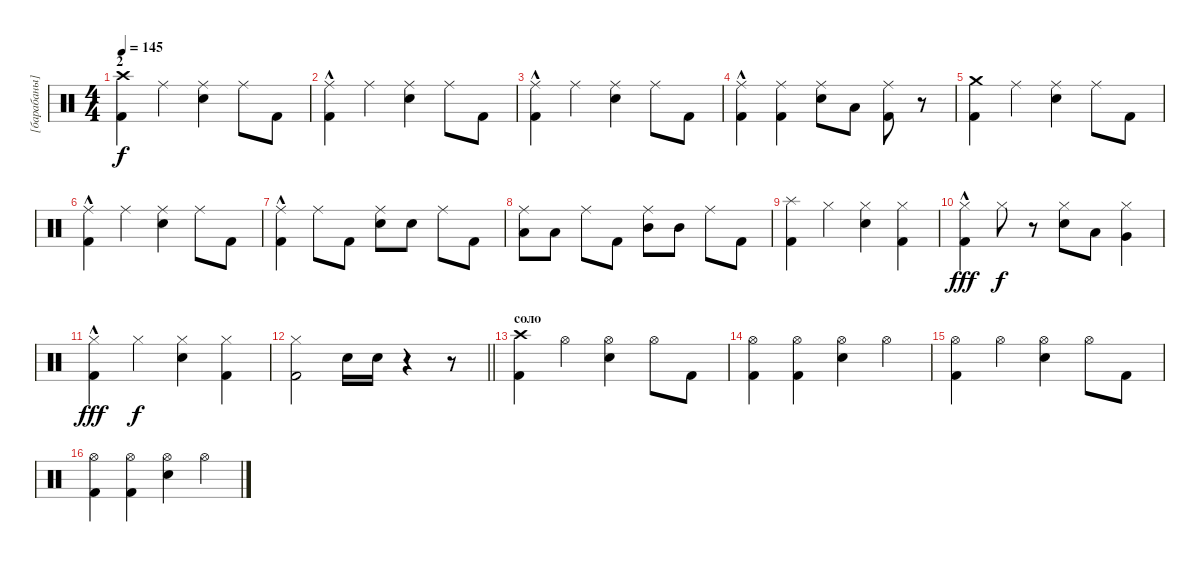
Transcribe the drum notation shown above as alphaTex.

\track ("[барабаны]" "[барабаны]") {instrument percussion}
\staff
\articulation defaults
\ts (4 4)
\section ("" "2")
\tempo 145
\clef neutral
\ks c
("Crash high (hit)" "Kick (hit) 2").4{dy f} "Ride (middle)".4 ("Ride (middle)" "Electric Snare (hit)").4 "Ride (middle)".8 "Kick (hit) 2".8 |
("Ride (middle)"{hac} "Kick (hit) 2").4 "Ride (middle)".4 ("Ride (middle)" "Electric Snare (hit)").4 "Ride (middle)".8 "Kick (hit) 2".8 |
("Ride (middle)"{hac} "Kick (hit) 2").4 "Ride (middle)".4 ("Ride (middle)" "Electric Snare (hit)").4 "Ride (middle)".8 "Kick (hit) 2".8 |
("Ride (middle)"{hac} "Kick (hit) 2").4 ("Ride (middle)" "Kick (hit) 2").4 ("Ride (middle)" "Electric Snare (hit)").8 "Low Tom (hit)".8 ("Ride (middle)" "Kick (hit) 2").8 r.8 |
("Crash medium (hit)" "Kick (hit) 2").4 "Ride (middle)".4 ("Ride (middle)" "Electric Snare (hit)").4 "Ride (middle)".8 "Kick (hit) 2".8 |
("Ride (middle)"{hac} "Kick (hit) 2").4 "Ride (middle)".4 ("Ride (middle)" "Electric Snare (hit)").4 "Ride (middle)".8 "Kick (hit) 2".8 |
("Ride (middle)"{hac} "Kick (hit) 2").4 "Ride (middle)".8 "Kick (hit) 2".8 ("Ride (middle)" "Electric Snare (hit)").8 "Electric Snare (hit)".8 "Ride (middle)".8 "Kick (hit) 2".8 |
("Ride (middle)" "Low Tom (hit)").8 "Low Tom (hit)".8 "Ride (middle)".8 "Kick (hit) 2".8 ("Ride (middle)" "Mid Tom (hit)").8 "Mid Tom (hit)".8 "Ride (middle)".8 "Kick (hit) 2".8 |
("Splash (hit)" "Kick (hit) 2").4 "Hi-Hat (closed)".4 ("Hi-Hat (closed)" "Electric Snare (hit)").4 ("Hi-Hat (closed)" "Kick (hit) 2").4 |
("Hi-Hat (closed)"{hac} "Kick (hit) 2").4{dy fff} "Hi-Hat (closed)".8{dy f} r.8 ("Hi-Hat (closed)" "Electric Snare (hit)").8 "Low Tom (hit)".8 ("Hi-Hat (closed)" "Very Low Tom (hit)").4 |
("Hi-Hat (closed)"{hac} "Kick (hit) 2").4{dy fff} "Hi-Hat (closed)".4{dy f} ("Hi-Hat (closed)" "Electric Snare (hit)").4 ("Hi-Hat (closed)" "Kick (hit) 2").4 |
\barLineRight lightlight
("Hi-Hat (closed)" "Kick (hit) 2").2 "Electric Snare (hit)".16 "Electric Snare (hit)".16 r.4 r.8 |
\section ("" "соло")
("Crash high (hit)" "Kick (hit) 2").4 "Hi-Hat (open)".4 ("Hi-Hat (open)" "Electric Snare (hit)").4 "Hi-Hat (open)".8 "Kick (hit) 2".8 |
("Hi-Hat (open)" "Kick (hit) 2").4 ("Hi-Hat (open)" "Kick (hit) 2").4 ("Hi-Hat (open)" "Electric Snare (hit)").4 "Hi-Hat (open)".4 |
("Hi-Hat (open)" "Kick (hit) 2").4 "Hi-Hat (open)".4 ("Hi-Hat (open)" "Electric Snare (hit)").4 "Hi-Hat (open)".8 "Kick (hit) 2".8 |
("Hi-Hat (open)" "Kick (hit) 2").4 ("Hi-Hat (open)" "Kick (hit) 2").4 ("Hi-Hat (open)" "Electric Snare (hit)").4 "Hi-Hat (open)".4
